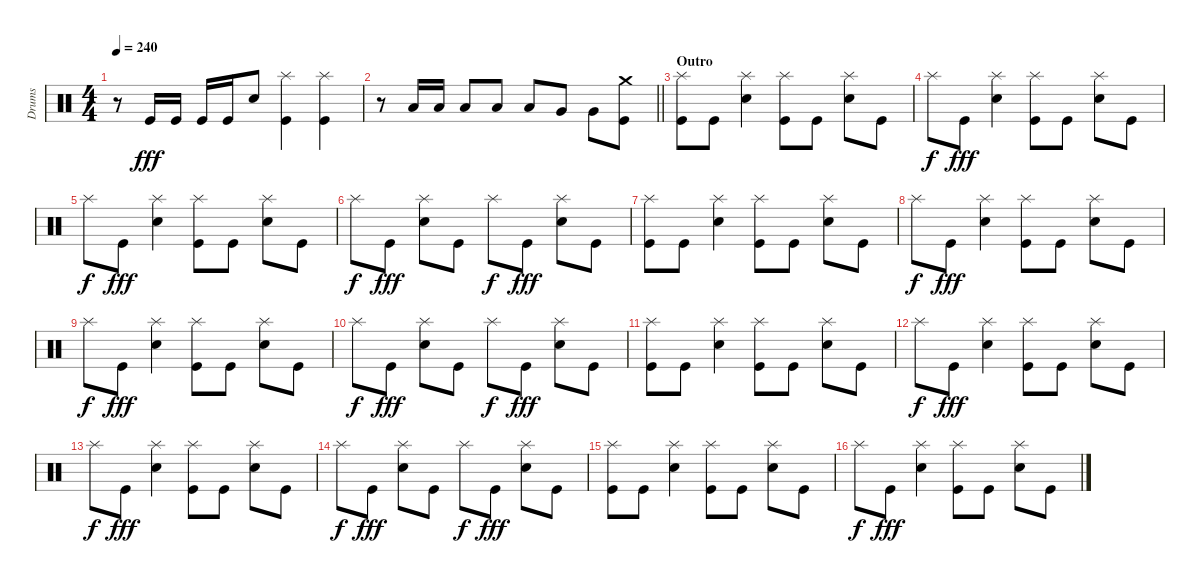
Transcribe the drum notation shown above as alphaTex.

\track ("Drums" "Drums") {instrument percussion}
\staff {score}
\articulation defaults
\ts (4 4)
\tempo 240
\clef neutral
\ks c
r.8{dy fff} "Kick (hit)".16 "Kick (hit)".16 "Kick (hit)".16 "Kick (hit)".16 "Electric Snare (hit)".8 ("Kick (hit)" "Splash (hit)").4 ("Kick (hit)" "Splash (hit)").4 |
\barLineRight lightlight
r.8 "Low Tom (hit)".16 "Low Tom (hit)".16 "Low Tom (hit)".8 "Low Tom (hit)".8 "Low Tom (hit)".8 "Very Low Tom (hit)".8 "Very Low Tom (hit)".8 ("Kick (hit)" "Crash medium (hit)").8 |
\section ("" "Outro")
("Kick (hit)" "Splash (hit)").8 "Kick (hit)".8 ("Electric Snare (hit)" "Splash (hit)").4 ("Kick (hit)" "Splash (hit)").8 "Kick (hit)".8 ("Electric Snare (hit)" "Splash (hit)").8 "Kick (hit)".8 |
"Splash (hit)".8{dy f} "Kick (hit)".8{dy fff} ("Electric Snare (hit)" "Splash (hit)").4 ("Kick (hit)" "Splash (hit)").8 "Kick (hit)".8 ("Electric Snare (hit)" "Splash (hit)").8 "Kick (hit)".8 |
"Splash (hit)".8{dy f} "Kick (hit)".8{dy fff} ("Electric Snare (hit)" "Splash (hit)").4 ("Kick (hit)" "Splash (hit)").8 "Kick (hit)".8 ("Electric Snare (hit)" "Splash (hit)").8 "Kick (hit)".8 |
"Splash (hit)".8{dy f} "Kick (hit)".8{dy fff} ("Electric Snare (hit)" "Splash (hit)").8 "Kick (hit)".8 "Splash (hit)".8{dy f} "Kick (hit)".8{dy fff} ("Electric Snare (hit)" "Splash (hit)").8 "Kick (hit)".8 |
("Kick (hit)" "Splash (hit)").8 "Kick (hit)".8 ("Electric Snare (hit)" "Splash (hit)").4 ("Kick (hit)" "Splash (hit)").8 "Kick (hit)".8 ("Electric Snare (hit)" "Splash (hit)").8 "Kick (hit)".8 |
"Splash (hit)".8{dy f} "Kick (hit)".8{dy fff} ("Electric Snare (hit)" "Splash (hit)").4 ("Kick (hit)" "Splash (hit)").8 "Kick (hit)".8 ("Electric Snare (hit)" "Splash (hit)").8 "Kick (hit)".8 |
"Splash (hit)".8{dy f} "Kick (hit)".8{dy fff} ("Electric Snare (hit)" "Splash (hit)").4 ("Kick (hit)" "Splash (hit)").8 "Kick (hit)".8 ("Electric Snare (hit)" "Splash (hit)").8 "Kick (hit)".8 |
"Splash (hit)".8{dy f} "Kick (hit)".8{dy fff} ("Electric Snare (hit)" "Splash (hit)").8 "Kick (hit)".8 "Splash (hit)".8{dy f} "Kick (hit)".8{dy fff} ("Electric Snare (hit)" "Splash (hit)").8 "Kick (hit)".8 |
("Kick (hit)" "Splash (hit)").8 "Kick (hit)".8 ("Electric Snare (hit)" "Splash (hit)").4 ("Kick (hit)" "Splash (hit)").8 "Kick (hit)".8 ("Electric Snare (hit)" "Splash (hit)").8 "Kick (hit)".8 |
"Splash (hit)".8{dy f} "Kick (hit)".8{dy fff} ("Electric Snare (hit)" "Splash (hit)").4 ("Kick (hit)" "Splash (hit)").8 "Kick (hit)".8 ("Electric Snare (hit)" "Splash (hit)").8 "Kick (hit)".8 |
"Splash (hit)".8{dy f} "Kick (hit)".8{dy fff} ("Electric Snare (hit)" "Splash (hit)").4 ("Kick (hit)" "Splash (hit)").8 "Kick (hit)".8 ("Electric Snare (hit)" "Splash (hit)").8 "Kick (hit)".8 |
"Splash (hit)".8{dy f} "Kick (hit)".8{dy fff} ("Electric Snare (hit)" "Splash (hit)").8 "Kick (hit)".8 "Splash (hit)".8{dy f} "Kick (hit)".8{dy fff} ("Electric Snare (hit)" "Splash (hit)").8 "Kick (hit)".8 |
("Kick (hit)" "Splash (hit)").8 "Kick (hit)".8 ("Electric Snare (hit)" "Splash (hit)").4 ("Kick (hit)" "Splash (hit)").8 "Kick (hit)".8 ("Electric Snare (hit)" "Splash (hit)").8 "Kick (hit)".8 |
"Splash (hit)".8{dy f} "Kick (hit)".8{dy fff} ("Electric Snare (hit)" "Splash (hit)").4 ("Kick (hit)" "Splash (hit)").8 "Kick (hit)".8 ("Electric Snare (hit)" "Splash (hit)").8 "Kick (hit)".8
